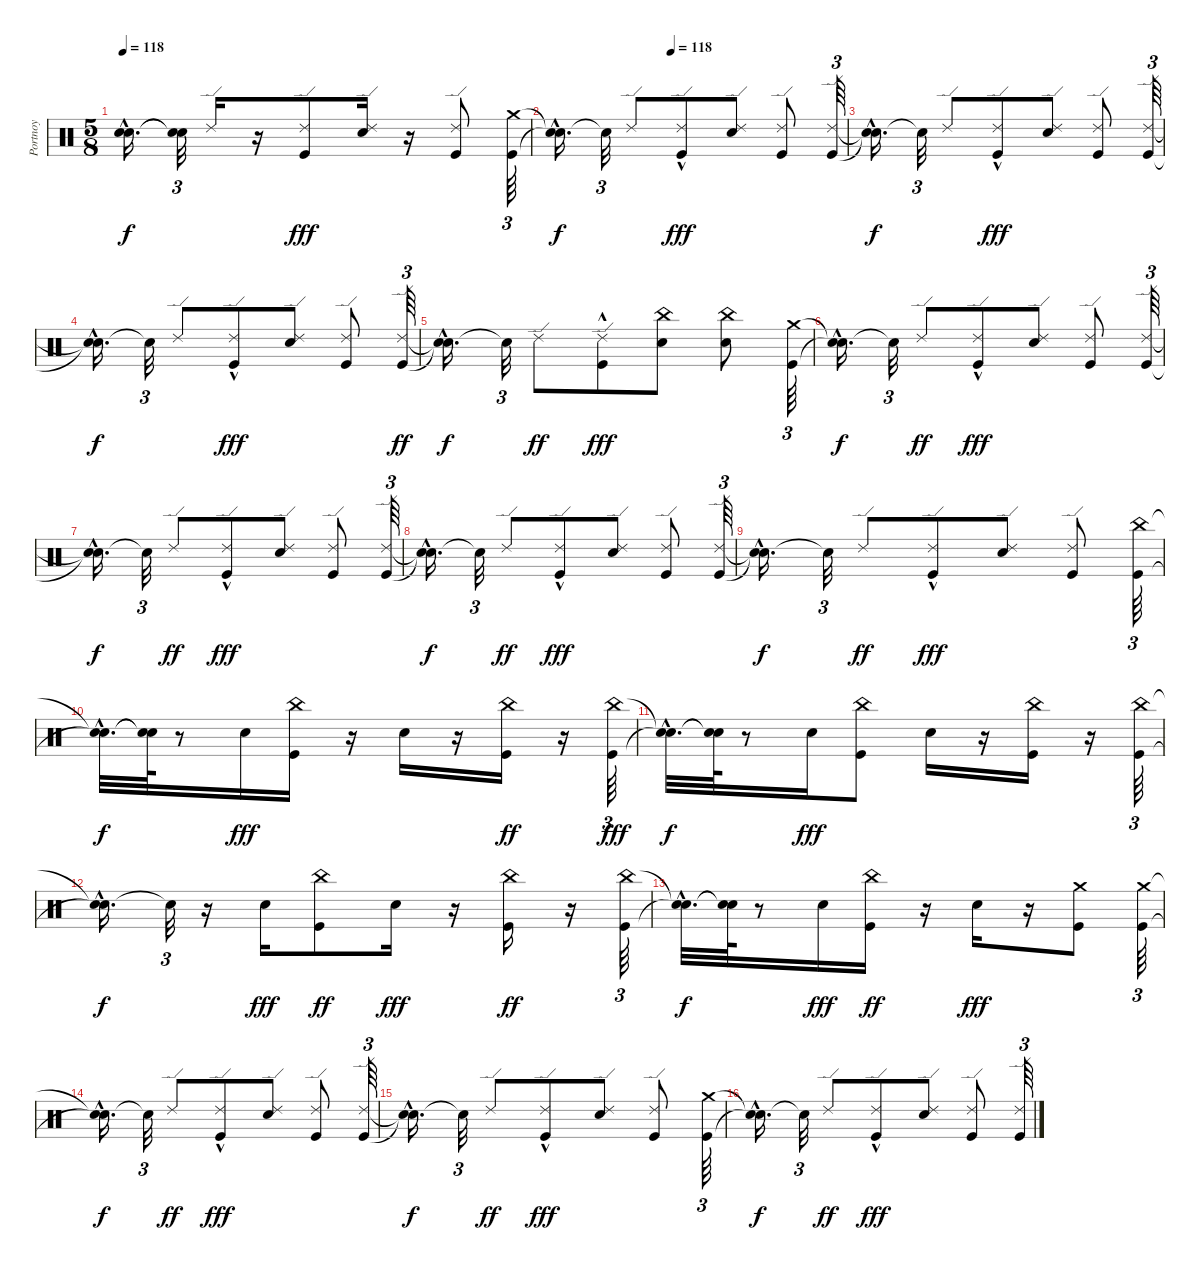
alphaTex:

\track ("Portnoy" "Portnoy") {instrument percussion}
\staff {score}
\articulation defaults
\ts (5 8)
\tempo 118
\clef neutral
\ks c
("Snare (hit)"{hac t} "Snare (hit)"{hac t}).16{d dy f} ("Snare (hit)"{t} "Snare (hit)"{t}).32{tu (3 2)} "Ride (edge) 2".16 r.16 ("Kick (hit)" "Ride (edge) 2").8{dy fff} ("Snare (hit) 2" "Ride (edge) 2").16 r.16 ("Kick (hit)" "Ride (edge) 2").8 ("Kick (hit)" "Crash medium (hit)").64{tu (3 2)} |
\tempo (118 0.4)
("Snare (hit)"{hac t} "Snare (hit)"{hac t}).16{d dy f} "Snare (hit)"{t}.32{tu (3 2)} "Ride (edge) 2".8 ("Kick (hit)"{hac} "Ride (edge) 2").8{dy fff} ("Snare (hit) 2" "Ride (edge) 2").8 ("Kick (hit)" "Ride (edge) 2").8 ("Ride (edge) 2" "Kick (hit)").64{tu (3 2)} |
("Snare (hit)"{hac t} "Snare (hit)"{hac t}).16{d dy f} "Snare (hit)"{t}.32{tu (3 2)} "Ride (edge) 2".8 ("Ride (edge) 2" "Kick (hit)"{hac}).8{dy fff} ("Ride (edge) 2" "Snare (hit) 2").8 ("Ride (edge) 2" "Kick (hit)").8 ("Ride (edge) 2" "Kick (hit)").64{tu (3 2)} |
("Snare (hit)"{hac t} "Snare (hit)"{hac t}).16{d dy f} "Snare (hit)"{t}.32{tu (3 2)} "Ride (edge) 2".8 ("Ride (edge) 2" "Kick (hit)"{hac}).8{dy fff} ("Ride (edge) 2" "Snare (hit) 2").8 ("Ride (edge) 2" "Kick (hit)").8 ("Kick (hit)" "Ride (edge) 2").64{tu (3 2) dy ff} |
("Snare (hit)"{hac t} "Snare (hit)"{hac t}).16{d dy f} "Snare (hit)"{t}.32{tu (3 2)} "Ride (edge) 2".8{dy ff} ("Ride (edge) 2" "Kick (hit)"{hac}).8{dy fff} ("China (hit)" "Snare (hit) 2").8 ("Snare (hit) 2" "China (hit)").8 ("Crash medium (hit)" "Kick (hit)").64{tu (3 2)} |
("Snare (hit)"{hac t} "Snare (hit)"{hac t}).16{d dy f} "Snare (hit)"{t}.32{tu (3 2)} "Ride (edge) 2".8{dy ff} ("Ride (edge) 2" "Kick (hit)"{hac}).8{dy fff} ("Ride (edge) 2" "Snare (hit) 2").8 ("Ride (edge) 2" "Kick (hit)").8 ("Ride (edge) 2" "Kick (hit)").64{tu (3 2)} |
("Snare (hit)"{hac t} "Snare (hit)"{hac t}).16{d dy f} "Snare (hit)"{t}.32{tu (3 2)} "Ride (edge) 2".8{dy ff} ("Ride (edge) 2" "Kick (hit)"{hac}).8{dy fff} ("Ride (edge) 2" "Snare (hit) 2").8 ("Ride (edge) 2" "Kick (hit)").8 ("Ride (edge) 2" "Kick (hit)").64{tu (3 2)} |
("Snare (hit)"{hac t} "Snare (hit)"{hac t}).16{d dy f} "Snare (hit)"{t}.32{tu (3 2)} "Ride (edge) 2".8{dy ff} ("Ride (edge) 2" "Kick (hit)"{hac}).8{dy fff} ("Ride (edge) 2" "Snare (hit) 2").8 ("Ride (edge) 2" "Kick (hit)").8 ("Ride (edge) 2" "Kick (hit)").64{tu (3 2)} |
("Snare (hit)"{hac t} "Snare (hit)"{hac t}).16{d dy f} "Snare (hit)"{t}.32{tu (3 2)} "Ride (edge) 2".8{dy ff} ("Ride (edge) 2" "Kick (hit)"{hac}).8{dy fff} ("Ride (edge) 2" "Snare (hit) 2").8 ("Ride (edge) 2" "Kick (hit)").8 ("China (hit)" "Kick (hit)").64{tu (3 2)} |
("Snare (hit)"{hac t} "Snare (hit)"{hac t}).32{d dy f} ("Snare (hit)"{t} "Snare (hit)"{t}).64 r.8 "Snare (hit) 2".16{dy fff} ("China (hit)" "Kick (hit)").16 r.16 "Snare (hit) 2".16 r.16 ("Kick (hit)" "China (hit)").16{dy ff} r.16 ("China (hit)" "Kick (hit)").64{tu (3 2) dy fff} |
("Snare (hit)"{hac t} "Snare (hit)"{hac t}).32{d dy f} ("Snare (hit)"{t} "Snare (hit)"{t}).64 r.8 "Snare (hit) 2".16{dy fff} ("China (hit)" "Kick (hit)").8 "Snare (hit) 2".16 r.16 ("China (hit)" "Kick (hit)").16 r.16 ("China (hit)" "Kick (hit)").64{tu (3 2)} |
("Snare (hit)"{hac t} "Snare (hit)"{hac t}).16{d dy f} "Snare (hit)"{t}.32{tu (3 2)} r.16 "Snare (hit) 2".16{dy fff} ("Kick (hit)" "China (hit)").8{dy ff} "Snare (hit) 2".16{dy fff} r.16 ("Kick (hit)" "China (hit)").16{dy ff} r.16 ("Kick (hit)" "China (hit)").64{tu (3 2)} |
("Snare (hit)"{hac t} "Snare (hit)"{hac t}).32{d dy f} ("Snare (hit)"{t} "Snare (hit)"{t}).64 r.8 "Snare (hit) 2".16{dy fff} ("Kick (hit)" "China (hit)").16{dy ff} r.16 "Snare (hit) 2".16{dy fff} r.16 ("Kick (hit)" "Crash medium (hit)").8 ("Kick (hit)" "Crash medium (hit)").64{tu (3 2)} |
("Snare (hit)"{hac t} "Snare (hit)"{hac t}).16{d dy f} "Snare (hit)"{t}.32{tu (3 2)} "Ride (edge) 2".8{dy ff} ("Ride (edge) 2" "Kick (hit)"{hac}).8{dy fff} ("Ride (edge) 2" "Snare (hit) 2").8 ("Ride (edge) 2" "Kick (hit)").8 ("Ride (edge) 2" "Kick (hit)").64{tu (3 2)} |
("Snare (hit)"{hac t} "Snare (hit)"{hac t}).16{d dy f} "Snare (hit)"{t}.32{tu (3 2)} "Ride (edge) 2".8{dy ff} ("Ride (edge) 2" "Kick (hit)"{hac}).8{dy fff} ("Ride (edge) 2" "Snare (hit) 2").8 ("Ride (edge) 2" "Kick (hit)").8 ("Crash medium (hit)" "Kick (hit)").64{tu (3 2)} |
("Snare (hit)"{hac t} "Snare (hit)"{hac t}).16{d dy f} "Snare (hit)"{t}.32{tu (3 2)} "Ride (edge) 2".8{dy ff} ("Ride (edge) 2" "Kick (hit)"{hac}).8{dy fff} ("Ride (edge) 2" "Snare (hit) 2").8 ("Ride (edge) 2" "Kick (hit)").8 ("Ride (edge) 2" "Kick (hit)").64{tu (3 2)}
